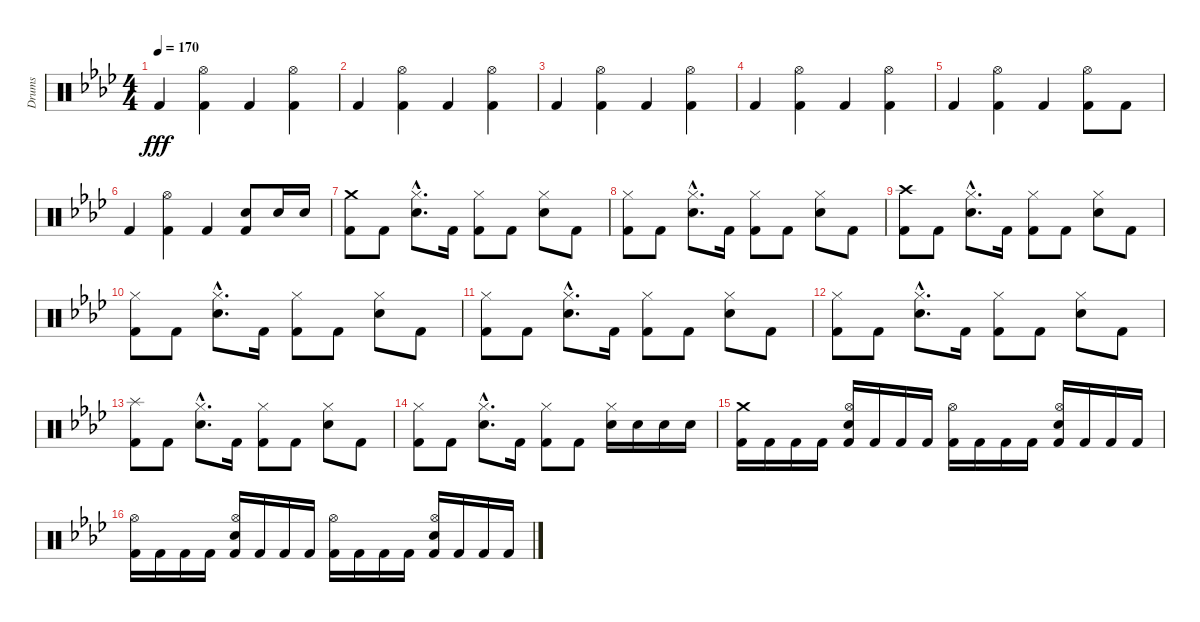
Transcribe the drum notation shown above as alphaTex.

\track ("Drums" "Drums") {instrument percussion}
\staff {score}
\articulation defaults
\ts (4 4)
\tempo 170
\clef neutral
\ks fminor "Kick (hit) 2".4{dy fff}
("Hi-Hat (open)" "Kick (hit) 2").4 "Kick (hit) 2".4 ("Hi-Hat (open)" "Kick (hit) 2").4 |
"Kick (hit) 2".4 ("Hi-Hat (open)" "Kick (hit) 2").4 "Kick (hit) 2".4 ("Hi-Hat (open)" "Kick (hit) 2").4 |
"Kick (hit) 2".4 ("Hi-Hat (open)" "Kick (hit) 2").4 "Kick (hit) 2".4 ("Hi-Hat (open)" "Kick (hit) 2").4 |
"Kick (hit) 2".4 ("Hi-Hat (open)" "Kick (hit) 2").4 "Kick (hit) 2".4 ("Hi-Hat (open)" "Kick (hit) 2").4 |
"Kick (hit) 2".4 ("Hi-Hat (open)" "Kick (hit) 2").4 "Kick (hit) 2".4 ("Hi-Hat (open)" "Kick (hit) 2").8 "Kick (hit) 2".8 |
"Kick (hit) 2".4 ("Hi-Hat (open)" "Kick (hit) 2").4 "Kick (hit) 2".4 ("Snare (hit) 2" "Kick (hit) 2").8 "Snare (hit) 2".16 "Snare (hit) 2".16 |
("Crash medium (hit)" "Kick (hit) 2").8 "Kick (hit) 2".8 ("Hi-Hat (closed)"{hac} "Snare (hit) 2"{hac}).8{d} "Kick (hit) 2".16 ("Hi-Hat (closed)" "Kick (hit) 2").8 "Kick (hit) 2".8 ("Hi-Hat (closed)" "Snare (hit) 2").8 "Kick (hit) 2".8 |
("Hi-Hat (closed)" "Kick (hit) 2").8 "Kick (hit) 2".8 ("Hi-Hat (closed)"{hac} "Snare (hit) 2"{hac}).8{d} "Kick (hit) 2".16 ("Hi-Hat (closed)" "Kick (hit) 2").8 "Kick (hit) 2".8 ("Hi-Hat (closed)" "Snare (hit) 2").8 "Kick (hit) 2".8 |
("Crash high (hit)" "Kick (hit) 2").8 "Kick (hit) 2".8 ("Hi-Hat (closed)"{hac} "Snare (hit) 2"{hac}).8{d} "Kick (hit) 2".16 ("Hi-Hat (closed)" "Kick (hit) 2").8 "Kick (hit) 2".8 ("Hi-Hat (closed)" "Snare (hit) 2").8 "Kick (hit) 2".8 |
("Hi-Hat (closed)" "Kick (hit) 2").8 "Kick (hit) 2".8 ("Hi-Hat (closed)"{hac} "Snare (hit) 2"{hac}).8{d} "Kick (hit) 2".16 ("Hi-Hat (closed)" "Kick (hit) 2").8 "Kick (hit) 2".8 ("Hi-Hat (closed)" "Snare (hit) 2").8 "Kick (hit) 2".8 |
("Hi-Hat (closed)" "Kick (hit) 2").8 "Kick (hit) 2".8 ("Hi-Hat (closed)"{hac} "Snare (hit) 2"{hac}).8{d} "Kick (hit) 2".16 ("Hi-Hat (closed)" "Kick (hit) 2").8 "Kick (hit) 2".8 ("Hi-Hat (closed)" "Snare (hit) 2").8 "Kick (hit) 2".8 |
("Hi-Hat (closed)" "Kick (hit) 2").8 "Kick (hit) 2".8 ("Hi-Hat (closed)"{hac} "Snare (hit) 2"{hac}).8{d} "Kick (hit) 2".16 ("Hi-Hat (closed)" "Kick (hit) 2").8 "Kick (hit) 2".8 ("Hi-Hat (closed)" "Snare (hit) 2").8 "Kick (hit) 2".8 |
("Splash (hit)" "Kick (hit) 2").8 "Kick (hit) 2".8 ("Hi-Hat (closed)"{hac} "Snare (hit) 2"{hac}).8{d} "Kick (hit) 2".16 ("Hi-Hat (closed)" "Kick (hit) 2").8 "Kick (hit) 2".8 ("Hi-Hat (closed)" "Snare (hit) 2").8 "Kick (hit) 2".8 |
("Hi-Hat (closed)" "Kick (hit) 2").8 "Kick (hit) 2".8 ("Hi-Hat (closed)"{hac} "Snare (hit) 2"{hac}).8{d} "Kick (hit) 2".16 ("Hi-Hat (closed)" "Kick (hit) 2").8 "Kick (hit) 2".8 ("Hi-Hat (closed)" "Snare (hit) 2").16 "Snare (hit) 2".16 "Snare (hit) 2".16 "Snare (hit) 2".16 |
("Crash medium (hit)" "Kick (hit) 2").16 "Kick (hit) 2".16 "Kick (hit) 2".16 "Kick (hit) 2".16 ("Hi-Hat (open)" "Snare (hit) 2" "Kick (hit) 2").16 "Kick (hit) 2".16 "Kick (hit) 2".16 "Kick (hit) 2".16 ("Hi-Hat (open)" "Kick (hit) 2").16 "Kick (hit) 2".16 "Kick (hit) 2".16 "Kick (hit) 2".16 ("Hi-Hat (open)" "Snare (hit) 2" "Kick (hit) 2").16 "Kick (hit) 2".16 "Kick (hit) 2".16 "Kick (hit) 2".16 |
("Hi-Hat (open)" "Kick (hit) 2").16 "Kick (hit) 2".16 "Kick (hit) 2".16 "Kick (hit) 2".16 ("Hi-Hat (open)" "Snare (hit) 2" "Kick (hit) 2").16 "Kick (hit) 2".16 "Kick (hit) 2".16 "Kick (hit) 2".16 ("Hi-Hat (open)" "Kick (hit) 2").16 "Kick (hit) 2".16 "Kick (hit) 2".16 "Kick (hit) 2".16 ("Hi-Hat (open)" "Snare (hit) 2" "Kick (hit) 2").16 "Kick (hit) 2".16 "Kick (hit) 2".16 "Kick (hit) 2".16
